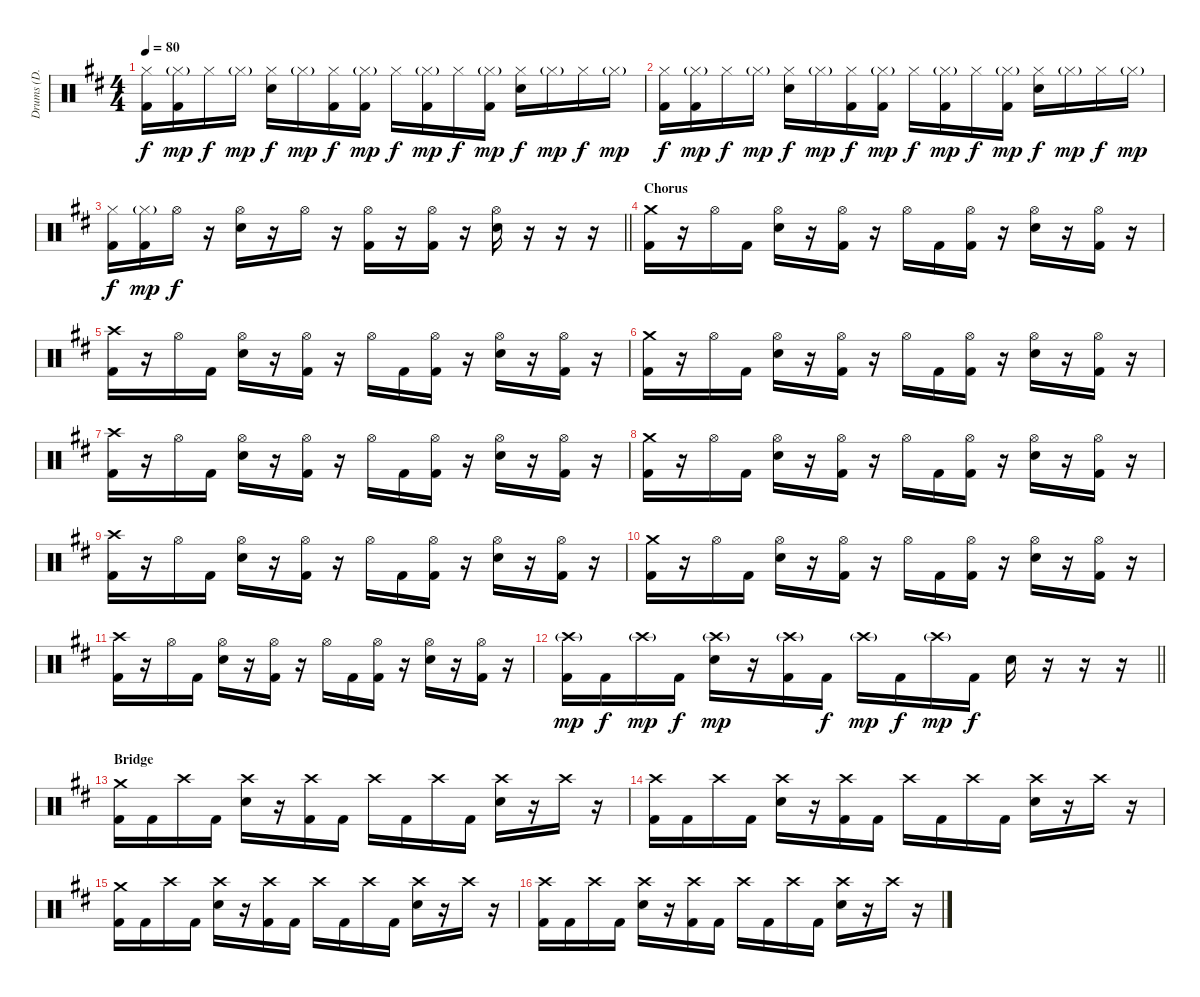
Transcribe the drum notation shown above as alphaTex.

\track ("Drums (D. Adair)" "Drums (D. ") {instrument percussion}
\staff {score}
\articulation defaults
\ts (4 4)
\tempo 80
\clef neutral
\ks d
("Hi-Hat (closed)" "Kick (hit) 2").16{dy f} ("Hi-Hat (closed)"{g} "Kick (hit) 2").16{dy mp} "Hi-Hat (closed)".16{dy f} "Hi-Hat (closed)"{g}.16{dy mp} ("Hi-Hat (closed)" "Snare (hit) 2").16{dy f} "Hi-Hat (closed)"{g}.16{dy mp} ("Hi-Hat (closed)" "Kick (hit) 2").16{dy f} ("Hi-Hat (closed)"{g} "Kick (hit) 2").16{dy mp} "Hi-Hat (closed)".16{dy f} ("Hi-Hat (closed)"{g} "Kick (hit) 2").16{dy mp} "Hi-Hat (closed)".16{dy f} ("Hi-Hat (closed)"{g} "Kick (hit) 2").16{dy mp} ("Hi-Hat (closed)" "Snare (hit) 2").16{dy f} "Hi-Hat (closed)"{g}.16{dy mp} "Hi-Hat (closed)".16{dy f} "Hi-Hat (closed)"{g}.16{dy mp} |
("Hi-Hat (closed)" "Kick (hit) 2").16{dy f} ("Hi-Hat (closed)"{g} "Kick (hit) 2").16{dy mp} "Hi-Hat (closed)".16{dy f} "Hi-Hat (closed)"{g}.16{dy mp} ("Hi-Hat (closed)" "Snare (hit) 2").16{dy f} "Hi-Hat (closed)"{g}.16{dy mp} ("Hi-Hat (closed)" "Kick (hit) 2").16{dy f} ("Hi-Hat (closed)"{g} "Kick (hit) 2").16{dy mp} "Hi-Hat (closed)".16{dy f} ("Hi-Hat (closed)"{g} "Kick (hit) 2").16{dy mp} "Hi-Hat (closed)".16{dy f} ("Hi-Hat (closed)"{g} "Kick (hit) 2").16{dy mp} ("Hi-Hat (closed)" "Snare (hit) 2").16{dy f} "Hi-Hat (closed)"{g}.16{dy mp} "Hi-Hat (closed)".16{dy f} "Hi-Hat (closed)"{g}.16{dy mp} |
\barLineRight lightlight
("Hi-Hat (closed)" "Kick (hit) 2").16{dy f} ("Hi-Hat (closed)"{g} "Kick (hit) 2").16{dy mp} "Hi-Hat (open)".16{dy f} r.16 ("Hi-Hat (open)" "Snare (hit) 2").16 r.16 "Hi-Hat (open)".16 r.16 ("Hi-Hat (open)" "Kick (hit) 2").16 r.16 ("Hi-Hat (open)" "Kick (hit) 2").16 r.16 ("Hi-Hat (open)" "Snare (hit) 2").16 r.16 r.16 r.16 |
\section ("" "Chorus")
("Crash medium (hit)" "Kick (hit) 2").16 r.16 "Hi-Hat (open)".16 "Kick (hit) 2".16 ("Hi-Hat (open)" "Snare (hit) 2").16 r.16 ("Hi-Hat (open)" "Kick (hit) 2").16 r.16 "Hi-Hat (open)".16 "Kick (hit) 2".16 ("Hi-Hat (open)" "Kick (hit) 2").16 r.16 ("Hi-Hat (open)" "Snare (hit) 2").16 r.16 ("Hi-Hat (open)" "Kick (hit) 2").16 r.16 |
("Crash high (hit)" "Kick (hit) 2").16 r.16 "Hi-Hat (open)".16 "Kick (hit) 2".16 ("Hi-Hat (open)" "Snare (hit) 2").16 r.16 ("Hi-Hat (open)" "Kick (hit) 2").16 r.16 "Hi-Hat (open)".16 "Kick (hit) 2".16 ("Hi-Hat (open)" "Kick (hit) 2").16 r.16 ("Hi-Hat (open)" "Snare (hit) 2").16 r.16 ("Hi-Hat (open)" "Kick (hit) 2").16 r.16 |
("Crash medium (hit)" "Kick (hit) 2").16 r.16 "Hi-Hat (open)".16 "Kick (hit) 2".16 ("Hi-Hat (open)" "Snare (hit) 2").16 r.16 ("Hi-Hat (open)" "Kick (hit) 2").16 r.16 "Hi-Hat (open)".16 "Kick (hit) 2".16 ("Hi-Hat (open)" "Kick (hit) 2").16 r.16 ("Hi-Hat (open)" "Snare (hit) 2").16 r.16 ("Hi-Hat (open)" "Kick (hit) 2").16 r.16 |
("Crash high (hit)" "Kick (hit) 2").16 r.16 "Hi-Hat (open)".16 "Kick (hit) 2".16 ("Hi-Hat (open)" "Snare (hit) 2").16 r.16 ("Hi-Hat (open)" "Kick (hit) 2").16 r.16 "Hi-Hat (open)".16 "Kick (hit) 2".16 ("Hi-Hat (open)" "Kick (hit) 2").16 r.16 ("Hi-Hat (open)" "Snare (hit) 2").16 r.16 ("Hi-Hat (open)" "Kick (hit) 2").16 r.16 |
("Crash medium (hit)" "Kick (hit) 2").16 r.16 "Hi-Hat (open)".16 "Kick (hit) 2".16 ("Hi-Hat (open)" "Snare (hit) 2").16 r.16 ("Hi-Hat (open)" "Kick (hit) 2").16 r.16 "Hi-Hat (open)".16 "Kick (hit) 2".16 ("Hi-Hat (open)" "Kick (hit) 2").16 r.16 ("Hi-Hat (open)" "Snare (hit) 2").16 r.16 ("Hi-Hat (open)" "Kick (hit) 2").16 r.16 |
("Crash high (hit)" "Kick (hit) 2").16 r.16 "Hi-Hat (open)".16 "Kick (hit) 2".16 ("Hi-Hat (open)" "Snare (hit) 2").16 r.16 ("Hi-Hat (open)" "Kick (hit) 2").16 r.16 "Hi-Hat (open)".16 "Kick (hit) 2".16 ("Hi-Hat (open)" "Kick (hit) 2").16 r.16 ("Hi-Hat (open)" "Snare (hit) 2").16 r.16 ("Hi-Hat (open)" "Kick (hit) 2").16 r.16 |
("Crash medium (hit)" "Kick (hit) 2").16 r.16 "Hi-Hat (open)".16 "Kick (hit) 2".16 ("Hi-Hat (open)" "Snare (hit) 2").16 r.16 ("Hi-Hat (open)" "Kick (hit) 2").16 r.16 "Hi-Hat (open)".16 "Kick (hit) 2".16 ("Hi-Hat (open)" "Kick (hit) 2").16 r.16 ("Hi-Hat (open)" "Snare (hit) 2").16 r.16 ("Hi-Hat (open)" "Kick (hit) 2").16 r.16 |
("Crash high (hit)" "Kick (hit) 2").16 r.16 "Hi-Hat (open)".16 "Kick (hit) 2".16 ("Hi-Hat (open)" "Snare (hit) 2").16 r.16 ("Hi-Hat (open)" "Kick (hit) 2").16 r.16 "Hi-Hat (open)".16 "Kick (hit) 2".16 ("Hi-Hat (open)" "Kick (hit) 2").16 r.16 ("Hi-Hat (open)" "Snare (hit) 2").16 r.16 ("Hi-Hat (open)" "Kick (hit) 2").16 r.16 |
\barLineRight lightlight
("Crash high (hit)"{g} "Kick (hit) 2").16{dy mp} "Kick (hit) 2".16{dy f} "Crash high (hit)"{g}.16{dy mp} "Kick (hit) 2".16{dy f} ("Crash high (hit)"{g} "Snare (hit) 2").16{dy mp} r.16 ("Crash high (hit)"{g} "Kick (hit) 2").16 "Kick (hit) 2".16{dy f} "Crash high (hit)"{g}.16{dy mp} "Kick (hit) 2".16{dy f} "Crash high (hit)"{g}.16{dy mp} "Kick (hit) 2".16{dy f} "Snare (hit) 2".16 r.16 r.16 r.16 |
\section ("" "Bridge")
("Crash medium (hit)" "Kick (hit) 2").16 "Kick (hit) 2".16 "Crash high (hit)".16 "Kick (hit) 2".16 ("Crash high (hit)" "Snare (hit) 2").16 r.16 ("Crash high (hit)" "Kick (hit) 2").16 "Kick (hit) 2".16 "Crash high (hit)".16 "Kick (hit) 2".16 "Crash high (hit)".16 "Kick (hit) 2".16 ("Crash high (hit)" "Snare (hit) 2").16 r.16 "Crash high (hit)".16 r.16 |
("Crash high (hit)" "Kick (hit) 2").16 "Kick (hit) 2".16 "Crash high (hit)".16 "Kick (hit) 2".16 ("Crash high (hit)" "Snare (hit) 2").16 r.16 ("Crash high (hit)" "Kick (hit) 2").16 "Kick (hit) 2".16 "Crash high (hit)".16 "Kick (hit) 2".16 "Crash high (hit)".16 "Kick (hit) 2".16 ("Crash high (hit)" "Snare (hit) 2").16 r.16 "Crash high (hit)".16 r.16 |
("Crash medium (hit)" "Kick (hit) 2").16 "Kick (hit) 2".16 "Crash high (hit)".16 "Kick (hit) 2".16 ("Crash high (hit)" "Snare (hit) 2").16 r.16 ("Crash high (hit)" "Kick (hit) 2").16 "Kick (hit) 2".16 "Crash high (hit)".16 "Kick (hit) 2".16 "Crash high (hit)".16 "Kick (hit) 2".16 ("Crash high (hit)" "Snare (hit) 2").16 r.16 "Crash high (hit)".16 r.16 |
("Crash high (hit)" "Kick (hit) 2").16 "Kick (hit) 2".16 "Crash high (hit)".16 "Kick (hit) 2".16 ("Crash high (hit)" "Snare (hit) 2").16 r.16 ("Crash high (hit)" "Kick (hit) 2").16 "Kick (hit) 2".16 "Crash high (hit)".16 "Kick (hit) 2".16 "Crash high (hit)".16 "Kick (hit) 2".16 ("Crash high (hit)" "Snare (hit) 2").16 r.16 "Crash high (hit)".16 r.16
